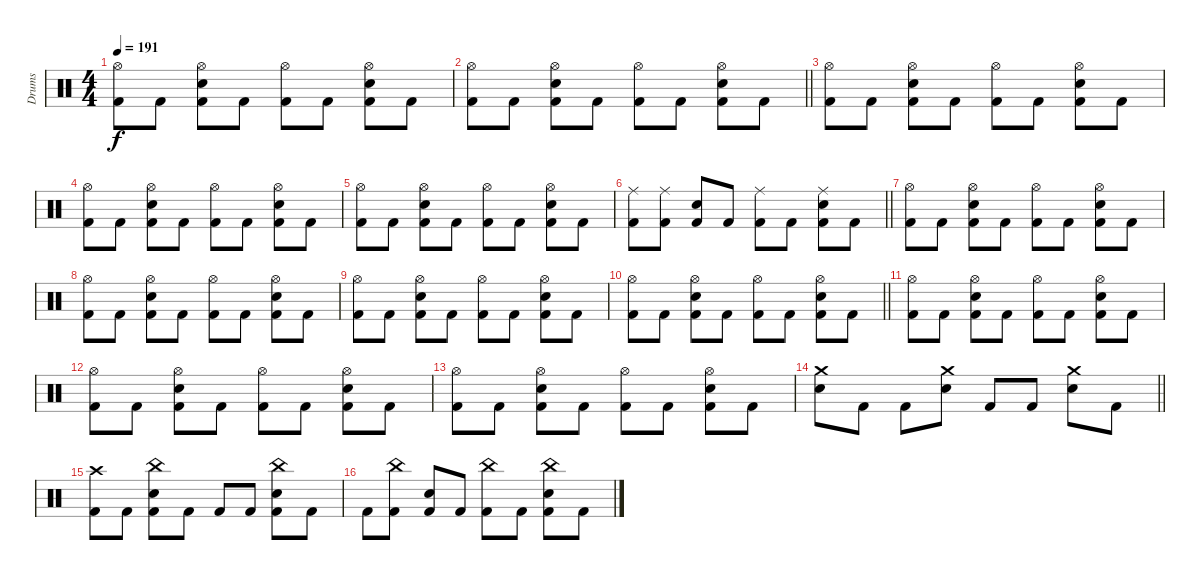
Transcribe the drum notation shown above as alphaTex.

\track ("Drums" "Drums") {instrument percussion}
\staff {score}
\articulation defaults
\ts (4 4)
\tempo 191
\clef neutral
\ks c
("Hi-Hat (open)" "Kick (hit) 2").8{dy f} "Kick (hit) 2".8 ("Hi-Hat (open)" "Snare (hit) 2" "Kick (hit) 2").8 "Kick (hit) 2".8 ("Hi-Hat (open)" "Kick (hit) 2").8 "Kick (hit) 2".8 ("Hi-Hat (open)" "Snare (hit) 2" "Kick (hit) 2").8 "Kick (hit) 2".8 |
\barLineRight lightlight
("Hi-Hat (open)" "Kick (hit) 2").8 "Kick (hit) 2".8 ("Hi-Hat (open)" "Snare (hit) 2" "Kick (hit) 2").8 "Kick (hit) 2".8 ("Hi-Hat (open)" "Kick (hit) 2").8 "Kick (hit) 2".8 ("Hi-Hat (open)" "Snare (hit) 2" "Kick (hit) 2").8 "Kick (hit) 2".8 |
("Hi-Hat (open)" "Kick (hit) 2").8 "Kick (hit) 2".8 ("Hi-Hat (open)" "Snare (hit) 2" "Kick (hit) 2").8 "Kick (hit) 2".8 ("Hi-Hat (open)" "Kick (hit) 2").8 "Kick (hit) 2".8 ("Hi-Hat (open)" "Snare (hit) 2" "Kick (hit) 2").8 "Kick (hit) 2".8 |
("Hi-Hat (open)" "Kick (hit) 2").8 "Kick (hit) 2".8 ("Hi-Hat (open)" "Snare (hit) 2" "Kick (hit) 2").8 "Kick (hit) 2".8 ("Hi-Hat (open)" "Kick (hit) 2").8 "Kick (hit) 2".8 ("Hi-Hat (open)" "Snare (hit) 2" "Kick (hit) 2").8 "Kick (hit) 2".8 |
("Hi-Hat (open)" "Kick (hit) 2").8 "Kick (hit) 2".8 ("Hi-Hat (open)" "Snare (hit) 2" "Kick (hit) 2").8 "Kick (hit) 2".8 ("Hi-Hat (open)" "Kick (hit) 2").8 "Kick (hit) 2".8 ("Hi-Hat (open)" "Snare (hit) 2" "Kick (hit) 2").8 "Kick (hit) 2".8 |
\barLineRight lightlight
("Ride (middle)" "Kick (hit) 2").8 ("Ride (middle)" "Kick (hit) 2").8 ("Snare (hit) 2" "Kick (hit) 2").8 "Kick (hit) 2".8 ("Ride (middle)" "Kick (hit) 2").8 "Kick (hit) 2".8 ("Ride (middle)" "Snare (hit) 2" "Kick (hit) 2").8 "Kick (hit) 2".8 |
\section ("" "")
("Hi-Hat (open)" "Kick (hit) 2").8 "Kick (hit) 2".8 ("Hi-Hat (open)" "Snare (hit) 2" "Kick (hit) 2").8 "Kick (hit) 2".8 ("Hi-Hat (open)" "Kick (hit) 2").8 "Kick (hit) 2".8 ("Hi-Hat (open)" "Snare (hit) 2" "Kick (hit) 2").8 "Kick (hit) 2".8 |
("Hi-Hat (open)" "Kick (hit) 2").8 "Kick (hit) 2".8 ("Hi-Hat (open)" "Snare (hit) 2" "Kick (hit) 2").8 "Kick (hit) 2".8 ("Hi-Hat (open)" "Kick (hit) 2").8 "Kick (hit) 2".8 ("Hi-Hat (open)" "Snare (hit) 2" "Kick (hit) 2").8 "Kick (hit) 2".8 |
("Hi-Hat (open)" "Kick (hit) 2").8 "Kick (hit) 2".8 ("Hi-Hat (open)" "Snare (hit) 2" "Kick (hit) 2").8 "Kick (hit) 2".8 ("Hi-Hat (open)" "Kick (hit) 2").8 "Kick (hit) 2".8 ("Hi-Hat (open)" "Snare (hit) 2" "Kick (hit) 2").8 "Kick (hit) 2".8 |
\barLineRight lightlight
("Hi-Hat (open)" "Kick (hit) 2").8 "Kick (hit) 2".8 ("Hi-Hat (open)" "Snare (hit) 2" "Kick (hit) 2").8 "Kick (hit) 2".8 ("Hi-Hat (open)" "Kick (hit) 2").8 "Kick (hit) 2".8 ("Hi-Hat (open)" "Snare (hit) 2" "Kick (hit) 2").8 "Kick (hit) 2".8 |
("Hi-Hat (open)" "Kick (hit) 2").8 "Kick (hit) 2".8 ("Hi-Hat (open)" "Snare (hit) 2" "Kick (hit) 2").8 "Kick (hit) 2".8 ("Hi-Hat (open)" "Kick (hit) 2").8 "Kick (hit) 2".8 ("Hi-Hat (open)" "Snare (hit) 2" "Kick (hit) 2").8 "Kick (hit) 2".8 |
("Hi-Hat (open)" "Kick (hit) 2").8 "Kick (hit) 2".8 ("Hi-Hat (open)" "Snare (hit) 2" "Kick (hit) 2").8 "Kick (hit) 2".8 ("Hi-Hat (open)" "Kick (hit) 2").8 "Kick (hit) 2".8 ("Hi-Hat (open)" "Snare (hit) 2" "Kick (hit) 2").8 "Kick (hit) 2".8 |
("Hi-Hat (open)" "Kick (hit) 2").8 "Kick (hit) 2".8 ("Hi-Hat (open)" "Snare (hit) 2" "Kick (hit) 2").8 "Kick (hit) 2".8 ("Hi-Hat (open)" "Kick (hit) 2").8 "Kick (hit) 2".8 ("Hi-Hat (open)" "Snare (hit) 2" "Kick (hit) 2").8 "Kick (hit) 2".8 |
\barLineRight lightlight
("Crash medium (hit)" "Snare (hit) 2").8 "Kick (hit) 2".8 "Kick (hit) 2".8 ("Crash medium (hit)" "Snare (hit) 2").8 "Kick (hit) 2".8 "Kick (hit) 2".8 ("Crash medium (hit)" "Snare (hit) 2").8 "Kick (hit) 2".8 |
\section ("" "")
("Crash high (hit)" "Kick (hit) 2").8 "Kick (hit) 2".8 ("China (hit)" "Snare (hit) 2" "Kick (hit) 2").8 "Kick (hit) 2".8 "Kick (hit) 2".8 "Kick (hit) 2".8 ("China (hit)" "Snare (hit) 2" "Kick (hit) 2").8 "Kick (hit) 2".8 |
"Kick (hit) 2".8 ("China (hit)" "Kick (hit) 2").8 ("Snare (hit) 2" "Kick (hit) 2").8 "Kick (hit) 2".8 ("China (hit)" "Kick (hit) 2").8 "Kick (hit) 2".8 ("China (hit)" "Snare (hit) 2" "Kick (hit) 2").8 "Kick (hit) 2".8
